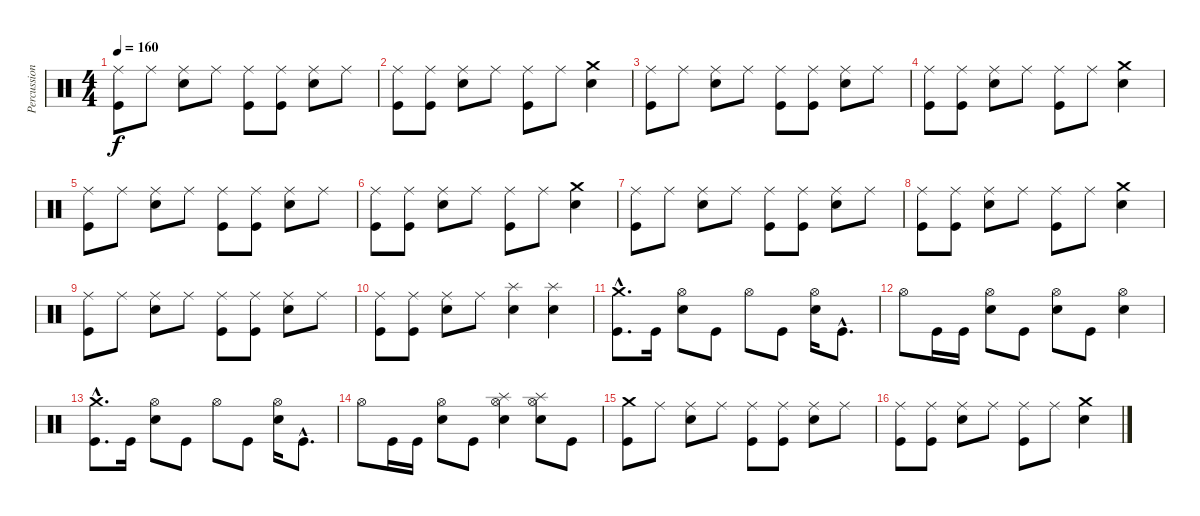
\track ("Percussion" "Percussion") {instrument percussion}
\staff {score}
\articulation defaults
\ts (4 4)
\tempo 160
\clef neutral
\ks c
("Kick (hit)" "Ride (middle)").8{dy f} "Ride (middle)".8 ("Snare (hit) 2" "Ride (middle)").8 "Ride (middle)".8 ("Kick (hit)" "Ride (middle)").8 ("Kick (hit)" "Ride (middle)").8 ("Snare (hit) 2" "Ride (middle)").8 "Ride (middle)".8 |
("Kick (hit)" "Ride (middle)").8 ("Kick (hit)" "Ride (middle)").8 ("Snare (hit) 2" "Ride (middle)").8 "Ride (middle)".8 ("Kick (hit)" "Ride (middle)").8 "Ride (middle)".8 ("Crash medium (hit)" "Snare (hit) 2").4 |
("Kick (hit)" "Ride (middle)").8 "Ride (middle)".8 ("Snare (hit) 2" "Ride (middle)").8 "Ride (middle)".8 ("Kick (hit)" "Ride (middle)").8 ("Kick (hit)" "Ride (middle)").8 ("Snare (hit) 2" "Ride (middle)").8 "Ride (middle)".8 |
("Kick (hit)" "Ride (middle)").8 ("Kick (hit)" "Ride (middle)").8 ("Snare (hit) 2" "Ride (middle)").8 "Ride (middle)".8 ("Kick (hit)" "Ride (middle)").8 "Ride (middle)".8 ("Crash medium (hit)" "Snare (hit) 2").4 |
("Kick (hit)" "Ride (middle)").8 "Ride (middle)".8 ("Snare (hit) 2" "Ride (middle)").8 "Ride (middle)".8 ("Kick (hit)" "Ride (middle)").8 ("Kick (hit)" "Ride (middle)").8 ("Snare (hit) 2" "Ride (middle)").8 "Ride (middle)".8 |
("Kick (hit)" "Ride (middle)").8 ("Kick (hit)" "Ride (middle)").8 ("Snare (hit) 2" "Ride (middle)").8 "Ride (middle)".8 ("Kick (hit)" "Ride (middle)").8 "Ride (middle)".8 ("Crash medium (hit)" "Snare (hit) 2").4 |
("Kick (hit)" "Ride (middle)").8 "Ride (middle)".8 ("Snare (hit) 2" "Ride (middle)").8 "Ride (middle)".8 ("Kick (hit)" "Ride (middle)").8 ("Kick (hit)" "Ride (middle)").8 ("Snare (hit) 2" "Ride (middle)").8 "Ride (middle)".8 |
("Kick (hit)" "Ride (middle)").8 ("Kick (hit)" "Ride (middle)").8 ("Snare (hit) 2" "Ride (middle)").8 "Ride (middle)".8 ("Kick (hit)" "Ride (middle)").8 "Ride (middle)".8 ("Crash medium (hit)" "Snare (hit) 2").4 |
("Kick (hit)" "Ride (middle)").8 "Ride (middle)".8 ("Snare (hit) 2" "Ride (middle)").8 "Ride (middle)".8 ("Kick (hit)" "Ride (middle)").8 ("Kick (hit)" "Ride (middle)").8 ("Snare (hit) 2" "Ride (middle)").8 "Ride (middle)".8 |
("Kick (hit)" "Ride (middle)").8 ("Kick (hit)" "Ride (middle)").8 ("Snare (hit) 2" "Ride (middle)").8 "Ride (middle)".8 ("Splash (hit)" "Snare (hit) 2").4 ("Splash (hit)" "Snare (hit) 2").4 |
("Crash medium (hit)"{hac} "Kick (hit)"{hac}).8{d} "Kick (hit)".16 ("Snare (hit) 2" "Hi-Hat (open)").8 "Kick (hit)".8 "Hi-Hat (open)".8 "Kick (hit)".8 ("Snare (hit) 2" "Hi-Hat (open)").16 "Kick (hit)"{hac}.8{d} |
"Hi-Hat (open)".8 "Kick (hit)".16 "Kick (hit)".16 ("Snare (hit) 2" "Hi-Hat (open)").8 "Kick (hit)".8 ("Snare (hit) 2" "Hi-Hat (open)").8 "Kick (hit)".8 ("Snare (hit) 2" "Hi-Hat (open)").4 |
("Crash medium (hit)"{hac} "Kick (hit)"{hac}).8{d} "Kick (hit)".16 ("Snare (hit) 2" "Hi-Hat (open)").8 "Kick (hit)".8 "Hi-Hat (open)".8 "Kick (hit)".8 ("Snare (hit) 2" "Hi-Hat (open)").16 "Kick (hit)"{hac}.8{d} |
"Hi-Hat (open)".8 "Kick (hit)".16 "Kick (hit)".16 ("Snare (hit) 2" "Hi-Hat (open)").8 "Kick (hit)".8 ("Splash (hit)" "Snare (hit) 2" "Hi-Hat (open)").4 ("Splash (hit)" "Snare (hit) 2" "Hi-Hat (open)").8 "Kick (hit)".8 |
("Crash medium (hit)" "Kick (hit)").8 "Ride (middle)".8 ("Snare (hit) 2" "Ride (middle)").8 "Ride (middle)".8 ("Kick (hit)" "Ride (middle)").8 ("Kick (hit)" "Ride (middle)").8 ("Snare (hit) 2" "Ride (middle)").8 "Ride (middle)".8 |
("Kick (hit)" "Ride (middle)").8 ("Kick (hit)" "Ride (middle)").8 ("Snare (hit) 2" "Ride (middle)").8 "Ride (middle)".8 ("Kick (hit)" "Ride (middle)").8 "Ride (middle)".8 ("Crash medium (hit)" "Snare (hit) 2").4
